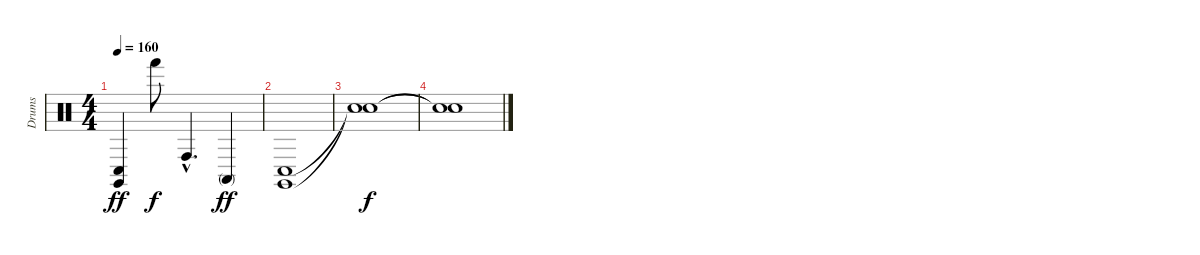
\track ("Drums" "Drums") {instrument percussion}
\staff {score}
\articulation defaults
\ts (4 4)
\tempo 160
\clef neutral
\ks c
("Conga low (hit)" "Claves (hit)").4{dy ff} "Hand (hit)".8{dy f} "Conga high (hit)"{hac}.4{d} "Conga high (mute)".4{dy ff} |
("Claves (hit)" "Conga low (hit)").1 |
("Snare (hit)"{t} "Snare (hit)"{t}).1{dy f} |
("Snare (hit)"{t} "Snare (hit)"{t}).1
